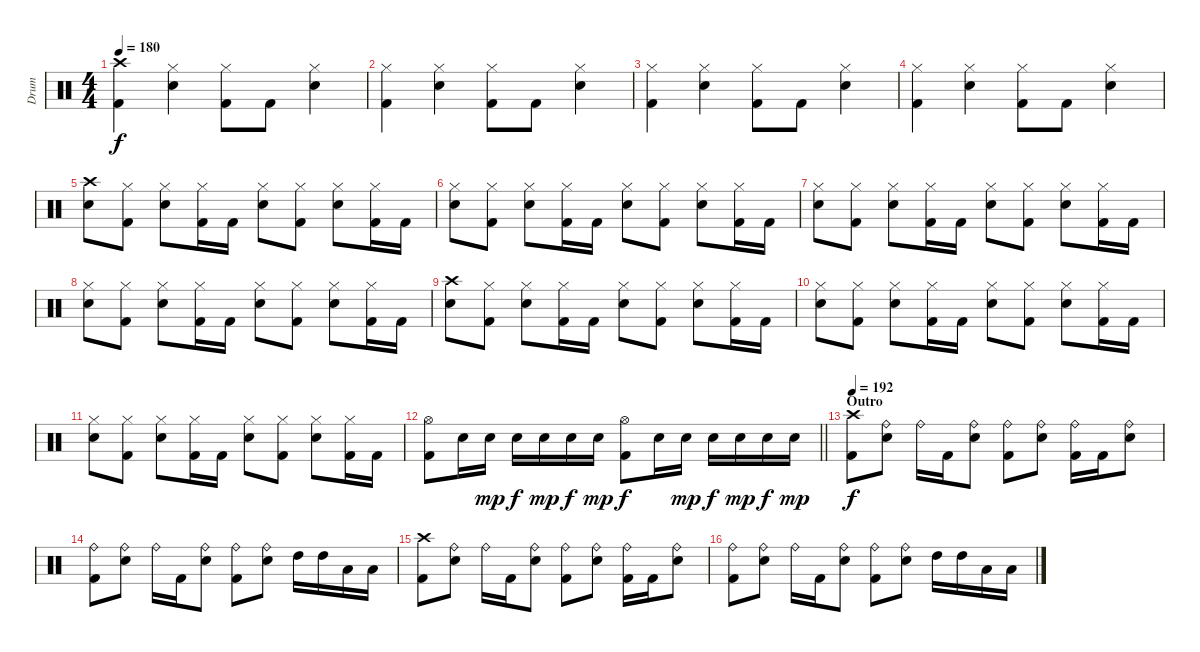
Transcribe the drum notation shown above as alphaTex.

\track ("Drum" "Drum") {instrument percussion}
\staff {score}
\articulation defaults
\ts (4 4)
\tempo 180
\clef neutral
\ks c
("Crash high (hit)" "Kick (hit) 2").4{dy f} ("Hi-Hat (closed)" "Snare (hit) 2").4 ("Hi-Hat (closed)" "Kick (hit) 2").8 "Kick (hit) 2".8 ("Hi-Hat (closed)" "Snare (hit) 2").4 |
("Hi-Hat (closed)" "Kick (hit) 2").4 ("Hi-Hat (closed)" "Snare (hit) 2").4 ("Hi-Hat (closed)" "Kick (hit) 2").8 "Kick (hit) 2".8 ("Hi-Hat (closed)" "Snare (hit) 2").4 |
("Hi-Hat (closed)" "Kick (hit) 2").4 ("Hi-Hat (closed)" "Snare (hit) 2").4 ("Hi-Hat (closed)" "Kick (hit) 2").8 "Kick (hit) 2".8 ("Hi-Hat (closed)" "Snare (hit) 2").4 |
("Hi-Hat (closed)" "Kick (hit) 2").4 ("Hi-Hat (closed)" "Snare (hit) 2").4 ("Hi-Hat (closed)" "Kick (hit) 2").8 "Kick (hit) 2".8 ("Hi-Hat (closed)" "Snare (hit) 2").4 |
("Crash high (hit)" "Snare (hit) 2").8 ("Hi-Hat (closed)" "Kick (hit) 2").8 ("Hi-Hat (closed)" "Snare (hit) 2").8 ("Hi-Hat (closed)" "Kick (hit) 2").16 "Kick (hit) 2".16 ("Hi-Hat (closed)" "Snare (hit) 2").8 ("Hi-Hat (closed)" "Kick (hit) 2").8 ("Hi-Hat (closed)" "Snare (hit) 2").8 ("Hi-Hat (closed)" "Kick (hit) 2").16 "Kick (hit) 2".16 |
("Hi-Hat (closed)" "Snare (hit) 2").8 ("Hi-Hat (closed)" "Kick (hit) 2").8 ("Hi-Hat (closed)" "Snare (hit) 2").8 ("Hi-Hat (closed)" "Kick (hit) 2").16 "Kick (hit) 2".16 ("Hi-Hat (closed)" "Snare (hit) 2").8 ("Hi-Hat (closed)" "Kick (hit) 2").8 ("Hi-Hat (closed)" "Snare (hit) 2").8 ("Hi-Hat (closed)" "Kick (hit) 2").16 "Kick (hit) 2".16 |
("Hi-Hat (closed)" "Snare (hit) 2").8 ("Hi-Hat (closed)" "Kick (hit) 2").8 ("Hi-Hat (closed)" "Snare (hit) 2").8 ("Hi-Hat (closed)" "Kick (hit) 2").16 "Kick (hit) 2".16 ("Hi-Hat (closed)" "Snare (hit) 2").8 ("Hi-Hat (closed)" "Kick (hit) 2").8 ("Hi-Hat (closed)" "Snare (hit) 2").8 ("Hi-Hat (closed)" "Kick (hit) 2").16 "Kick (hit) 2".16 |
("Hi-Hat (closed)" "Snare (hit) 2").8 ("Hi-Hat (closed)" "Kick (hit) 2").8 ("Hi-Hat (closed)" "Snare (hit) 2").8 ("Hi-Hat (closed)" "Kick (hit) 2").16 "Kick (hit) 2".16 ("Hi-Hat (closed)" "Snare (hit) 2").8 ("Hi-Hat (closed)" "Kick (hit) 2").8 ("Hi-Hat (closed)" "Snare (hit) 2").8 ("Hi-Hat (closed)" "Kick (hit) 2").16 "Kick (hit) 2".16 |
("Crash high (hit)" "Snare (hit) 2").8 ("Hi-Hat (closed)" "Kick (hit) 2").8 ("Hi-Hat (closed)" "Snare (hit) 2").8 ("Hi-Hat (closed)" "Kick (hit) 2").16 "Kick (hit) 2".16 ("Hi-Hat (closed)" "Snare (hit) 2").8 ("Hi-Hat (closed)" "Kick (hit) 2").8 ("Hi-Hat (closed)" "Snare (hit) 2").8 ("Hi-Hat (closed)" "Kick (hit) 2").16 "Kick (hit) 2".16 |
("Hi-Hat (closed)" "Snare (hit) 2").8 ("Hi-Hat (closed)" "Kick (hit) 2").8 ("Hi-Hat (closed)" "Snare (hit) 2").8 ("Hi-Hat (closed)" "Kick (hit) 2").16 "Kick (hit) 2".16 ("Hi-Hat (closed)" "Snare (hit) 2").8 ("Hi-Hat (closed)" "Kick (hit) 2").8 ("Hi-Hat (closed)" "Snare (hit) 2").8 ("Hi-Hat (closed)" "Kick (hit) 2").16 "Kick (hit) 2".16 |
("Hi-Hat (closed)" "Snare (hit) 2").8 ("Hi-Hat (closed)" "Kick (hit) 2").8 ("Hi-Hat (closed)" "Snare (hit) 2").8 ("Hi-Hat (closed)" "Kick (hit) 2").16 "Kick (hit) 2".16 ("Hi-Hat (closed)" "Snare (hit) 2").8 ("Hi-Hat (closed)" "Kick (hit) 2").8 ("Hi-Hat (closed)" "Snare (hit) 2").8 ("Hi-Hat (closed)" "Kick (hit) 2").16 "Kick (hit) 2".16 |
\barLineRight lightlight
("Hi-Hat (open)" "Kick (hit) 2").8 "Snare (hit) 2".16 "Snare (hit) 2".16{dy mp} "Snare (hit) 2".16{dy f} "Snare (hit) 2".16{dy mp} "Snare (hit) 2".16{dy f} "Snare (hit) 2".16{dy mp} ("Hi-Hat (open)" "Kick (hit) 2").8{dy f} "Snare (hit) 2".16 "Snare (hit) 2".16{dy mp} "Snare (hit) 2".16{dy f} "Snare (hit) 2".16{dy mp} "Snare (hit) 2".16{dy f} "Snare (hit) 2".16{dy mp} |
\section ("" "Outro")
\tempo 192
("Crash high (hit)" "Kick (hit) 2").8{dy f} ("Ride (bell)" "Snare (hit) 2").8 "Ride (bell)".16 "Kick (hit) 2".16 ("Ride (bell)" "Snare (hit) 2").8 ("Ride (bell)" "Kick (hit) 2").8 ("Ride (bell)" "Snare (hit) 2").8 ("Ride (bell)" "Kick (hit) 2").16 "Kick (hit) 2".16 ("Ride (bell)" "Snare (hit) 2").8 |
("Ride (bell)" "Kick (hit) 2").8 ("Ride (bell)" "Snare (hit) 2").8 "Ride (bell)".16 "Kick (hit) 2".16 ("Ride (bell)" "Snare (hit) 2").8 ("Ride (bell)" "Kick (hit) 2").8 ("Ride (bell)" "Snare (hit) 2").8 "High Tom (hit)".16 "High Tom (hit)".16 "Low Tom (hit)".16 "Low Tom (hit)".16 |
("Crash high (hit)" "Kick (hit) 2").8 ("Ride (bell)" "Snare (hit) 2").8 "Ride (bell)".16 "Kick (hit) 2".16 ("Ride (bell)" "Snare (hit) 2").8 ("Ride (bell)" "Kick (hit) 2").8 ("Ride (bell)" "Snare (hit) 2").8 ("Ride (bell)" "Kick (hit) 2").16 "Kick (hit) 2".16 ("Ride (bell)" "Snare (hit) 2").8 |
("Ride (bell)" "Kick (hit) 2").8 ("Ride (bell)" "Snare (hit) 2").8 "Ride (bell)".16 "Kick (hit) 2".16 ("Ride (bell)" "Snare (hit) 2").8 ("Ride (bell)" "Kick (hit) 2").8 ("Ride (bell)" "Snare (hit) 2").8 "High Tom (hit)".16 "High Tom (hit)".16 "Low Tom (hit)".16 "Low Tom (hit)".16
